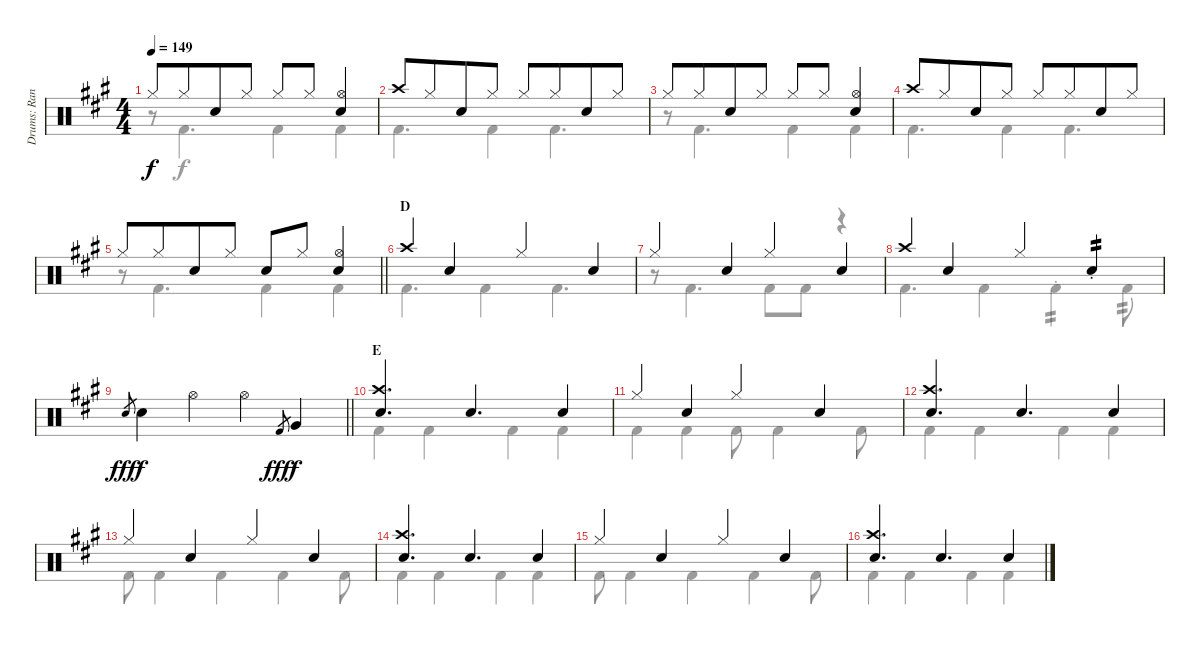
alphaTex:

\track ("Drums: Randy" "Drums: Ran") {instrument percussion}
\staff {score}
\articulation defaults
\voice
\ts (4 4)
\tempo 149
\clef neutral
\ks a "Hi-Hat (closed)".8{dy f} "Hi-Hat (closed)".8{beam merge} "Snare (hit) 2".8 "Hi-Hat (closed)".8 "Hi-Hat (closed)".8 "Hi-Hat (closed)".8
("Hi-Hat (open)" "Snare (hit) 2").4 |
"Crash high (hit)".8 "Hi-Hat (closed)".8{beam merge} "Snare (hit) 2".8 "Hi-Hat (closed)".8 "Hi-Hat (closed)".8 "Hi-Hat (closed)".8{beam merge} "Snare (hit) 2".8 "Hi-Hat (closed)".8 |
"Hi-Hat (closed)".8 "Hi-Hat (closed)".8{beam merge} "Snare (hit) 2".8 "Hi-Hat (closed)".8 "Hi-Hat (closed)".8 "Hi-Hat (closed)".8 ("Hi-Hat (open)" "Snare (hit) 2").4 |
"Crash high (hit)".8 "Hi-Hat (closed)".8{beam merge} "Snare (hit) 2".8 "Hi-Hat (closed)".8 "Hi-Hat (closed)".8 "Hi-Hat (closed)".8{beam merge} "Snare (hit) 2".8 "Hi-Hat (closed)".8 |
\barLineRight lightlight "Hi-Hat (closed)".8 "Hi-Hat (closed)".8{beam merge} "Snare (hit) 2".8 "Hi-Hat (closed)".8 "Snare (hit) 2".8 "Hi-Hat (closed)".8
("Hi-Hat (open)" "Snare (hit) 2").4 |
\section ("" "D")
"Crash high (hit)".4 "Snare (hit) 2".4 "Hi-Hat (closed)".4 "Snare (hit) 2".4 |
"Hi-Hat (closed)".4 "Snare (hit) 2".4 "Hi-Hat (closed)".4 "Snare (hit) 2".4 |
"Crash high (hit)".4 "Snare (hit) 2".4 "Hi-Hat (closed)".4 "Snare (hit) 2"{st}.4{tp 2} |
\barLineRight lightlight "Snare (hit) 2".8{gr dy fff} "Snare (hit) 2".4{dy f} "Hi-Hat (open)".4 "Hi-Hat (open)".4 "Kick (hit) 2".8{gr dy fff} "Very Low Tom (hit)".4{dy f}
|
\section ("" "E")
("Crash high (hit)" "Snare (hit) 2").4{d} "Snare (hit) 2".4{d} "Snare (hit) 2".4 |
"Hi-Hat (closed)".4 "Snare (hit) 2".4 "Hi-Hat (closed)".4 "Snare (hit) 2".4 |
("Crash high (hit)" "Snare (hit) 2").4{d} "Snare (hit) 2".4{d} "Snare (hit) 2".4 |
"Hi-Hat (closed)".4 "Snare (hit) 2".4 "Hi-Hat (closed)".4 "Snare (hit) 2".4 |
("Crash high (hit)" "Snare (hit) 2").4{d} "Snare (hit) 2".4{d} "Snare (hit) 2".4 |
"Hi-Hat (closed)".4 "Snare (hit) 2".4 "Hi-Hat (closed)".4 "Snare (hit) 2".4 |
("Crash high (hit)" "Snare (hit) 2").4{d} "Snare (hit) 2".4{d} "Snare (hit) 2".4
\voice
\clef neutral
\ottava regular
\simile none
\ks a
r.8{dy f} "Kick (hit) 2".4{d} "Kick (hit) 2".4 "Kick (hit) 2".4 |
"Kick (hit) 2".4{d} "Kick (hit) 2".4 "Kick (hit) 2".4{d} |
r.8 "Kick (hit) 2".4{d} "Kick (hit) 2".4 "Kick (hit) 2".4 |
"Kick (hit) 2".4{d} "Kick (hit) 2".4 "Kick (hit) 2".4{d} |
\barLineRight lightlight
r.8 "Kick (hit) 2".4{d} "Kick (hit) 2".4 "Kick (hit) 2".4 |
"Kick (hit) 2".4{d} "Kick (hit) 2".4 "Kick (hit) 2".4{d} |
r.8 "Kick (hit) 2".4{d} "Kick (hit) 2".8 "Kick (hit) 2".8 r.4 |
"Kick (hit) 2".4{d} "Kick (hit) 2".4 "Kick (hit) 2"{st}.4{tp 2} "Kick (hit) 2".8{tp 2} |
\barLineRight lightlight
|
"Kick (hit) 2".4 "Kick (hit) 2".4 "Kick (hit) 2".4 "Kick (hit) 2".4 |
"Kick (hit) 2".4 "Kick (hit) 2".4 "Kick (hit) 2".8 "Kick (hit) 2".4 "Kick (hit) 2".8 |
"Kick (hit) 2".4 "Kick (hit) 2".4 "Kick (hit) 2".4 "Kick (hit) 2".4 |
"Kick (hit) 2".8 "Kick (hit) 2".4 "Kick (hit) 2".4 "Kick (hit) 2".4 "Kick (hit) 2".8 |
"Kick (hit) 2".4 "Kick (hit) 2".4 "Kick (hit) 2".4 "Kick (hit) 2".4 |
"Kick (hit) 2".8 "Kick (hit) 2".4 "Kick (hit) 2".4 "Kick (hit) 2".4 "Kick (hit) 2".8 |
"Kick (hit) 2".4 "Kick (hit) 2".4 "Kick (hit) 2".4 "Kick (hit) 2".4
